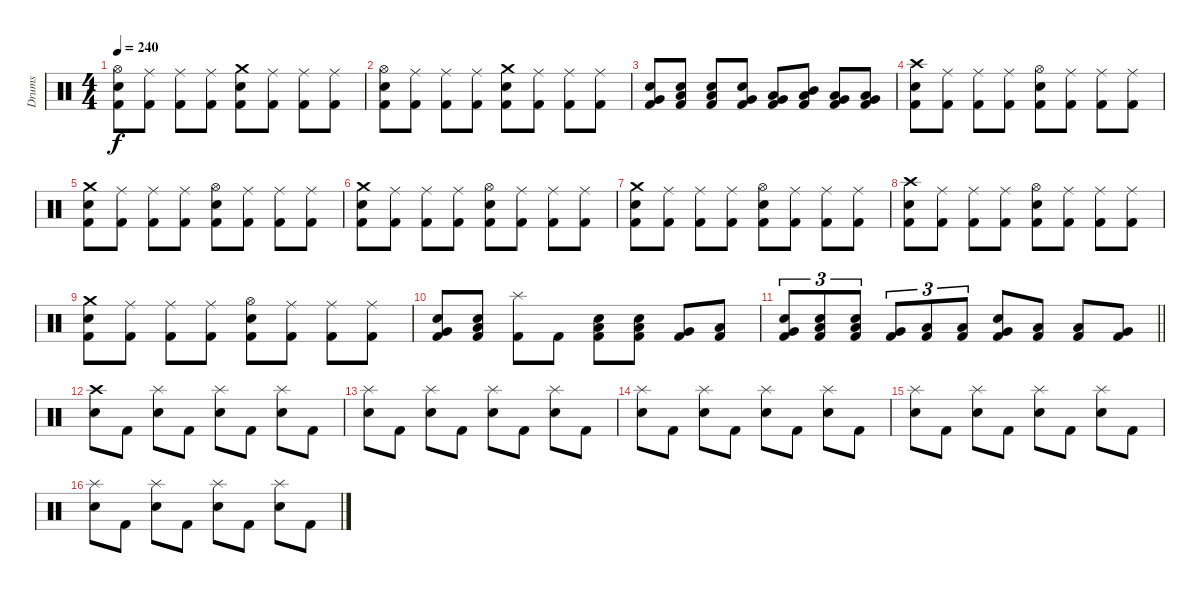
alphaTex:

\track ("Drums" "Drums") {instrument percussion}
\staff {score}
\articulation defaults
\ts (4 4)
\tempo 240
\clef neutral
\ks c
("Hi-Hat (open)" "Electric Snare (hit)" "Kick (hit) 2").8{dy f} ("Ride (middle)" "Kick (hit) 2").8 ("Ride (middle)" "Kick (hit) 2").8 ("Ride (middle)" "Kick (hit) 2").8 ("Crash medium (hit)" "Electric Snare (hit)" "Kick (hit) 2").8 ("Ride (middle)" "Kick (hit) 2").8 ("Ride (middle)" "Kick (hit) 2").8 ("Ride (middle)" "Kick (hit) 2").8 |
("Hi-Hat (open)" "Electric Snare (hit)" "Kick (hit) 2").8 ("Ride (middle)" "Kick (hit) 2").8 ("Ride (middle)" "Kick (hit) 2").8 ("Ride (middle)" "Kick (hit) 2").8 ("Crash medium (hit)" "Electric Snare (hit)" "Kick (hit) 2").8 ("Ride (middle)" "Kick (hit) 2").8 ("Ride (middle)" "Kick (hit) 2").8 ("Ride (middle)" "Kick (hit) 2").8 |
("Very Low Tom (hit)" "Electric Snare (hit)" "Kick (hit) 2").8 ("Low Tom (hit)" "Electric Snare (hit)" "Kick (hit) 2").8 ("Low Floor Tom (hit)" "Electric Snare (hit)" "Kick (hit) 2").8 ("Very Low Tom (hit)" "Electric Snare (hit)" "Kick (hit) 2").8 ("Low Floor Tom (hit)" "Very Low Tom (hit)" "Kick (hit) 2").8 ("Low Tom (hit)" "Mid Tom (hit)" "Kick (hit) 2").8 ("Very Low Tom (hit)" "Low Tom (hit)" "Kick (hit) 2").8 ("Low Floor Tom (hit)" "Very Low Tom (hit)" "Kick (hit) 2").8 |
("Crash high (hit)" "Electric Snare (hit)" "Kick (hit) 2").8 ("Ride (middle)" "Kick (hit) 2").8 ("Ride (middle)" "Kick (hit) 2").8 ("Ride (middle)" "Kick (hit) 2").8 ("Hi-Hat (open)" "Electric Snare (hit)" "Kick (hit) 2").8 ("Ride (middle)" "Kick (hit) 2").8 ("Ride (middle)" "Kick (hit) 2").8 ("Ride (middle)" "Kick (hit) 2").8 |
("Crash medium (hit)" "Electric Snare (hit)" "Kick (hit) 2").8 ("Ride (middle)" "Kick (hit) 2").8 ("Ride (middle)" "Kick (hit) 2").8 ("Ride (middle)" "Kick (hit) 2").8 ("Hi-Hat (open)" "Electric Snare (hit)" "Kick (hit) 2").8 ("Ride (middle)" "Kick (hit) 2").8 ("Ride (middle)" "Kick (hit) 2").8 ("Ride (middle)" "Kick (hit) 2").8 |
("Crash medium (hit)" "Electric Snare (hit)" "Kick (hit) 2").8 ("Ride (middle)" "Kick (hit) 2").8 ("Ride (middle)" "Kick (hit) 2").8 ("Ride (middle)" "Kick (hit) 2").8 ("Hi-Hat (open)" "Electric Snare (hit)" "Kick (hit) 2").8 ("Ride (middle)" "Kick (hit) 2").8 ("Ride (middle)" "Kick (hit) 2").8 ("Ride (middle)" "Kick (hit) 2").8 |
("Crash medium (hit)" "Electric Snare (hit)" "Kick (hit) 2").8 ("Ride (middle)" "Kick (hit) 2").8 ("Ride (middle)" "Kick (hit) 2").8 ("Ride (middle)" "Kick (hit) 2").8 ("Hi-Hat (open)" "Electric Snare (hit)" "Kick (hit) 2").8 ("Ride (middle)" "Kick (hit) 2").8 ("Ride (middle)" "Kick (hit) 2").8 ("Ride (middle)" "Kick (hit) 2").8 |
("Crash high (hit)" "Electric Snare (hit)" "Kick (hit) 2").8 ("Ride (middle)" "Kick (hit) 2").8 ("Ride (middle)" "Kick (hit) 2").8 ("Ride (middle)" "Kick (hit) 2").8 ("Hi-Hat (open)" "Electric Snare (hit)" "Kick (hit) 2").8 ("Ride (middle)" "Kick (hit) 2").8 ("Ride (middle)" "Kick (hit) 2").8 ("Ride (middle)" "Kick (hit) 2").8 |
("Crash medium (hit)" "Electric Snare (hit)" "Kick (hit) 2").8 ("Ride (middle)" "Kick (hit) 2").8 ("Ride (middle)" "Kick (hit) 2").8 ("Ride (middle)" "Kick (hit) 2").8 ("Hi-Hat (open)" "Electric Snare (hit)" "Kick (hit) 2").8 ("Ride (middle)" "Kick (hit) 2").8 ("Ride (middle)" "Kick (hit) 2").8 ("Ride (middle)" "Kick (hit) 2").8 |
("Very Low Tom (hit)" "Electric Snare (hit)" "Kick (hit) 2").8 ("Low Tom (hit)" "Electric Snare (hit)" "Kick (hit) 2").8 ("Splash (hit)" "Kick (hit) 2").8 "Kick (hit) 2".8 ("Low Floor Tom (hit)" "Electric Snare (hit)" "Kick (hit) 2").8 ("Low Tom (hit)" "Electric Snare (hit)" "Kick (hit) 2").8 ("Very Low Tom (hit)" "Kick (hit) 2").8 ("Low Floor Tom (hit)" "Kick (hit) 2").8 |
\barLineRight lightlight
("Very Low Tom (hit)" "Electric Snare (hit)" "Kick (hit) 2").8{tu (3 2)} ("Low Tom (hit)" "Electric Snare (hit)" "Kick (hit) 2").8{tu (3 2)} ("Low Floor Tom (hit)" "Electric Snare (hit)" "Kick (hit) 2").8{tu (3 2)} ("Very Low Tom (hit)" "Kick (hit) 2").8{tu (3 2)} ("Low Tom (hit)" "Kick (hit) 2").8{tu (3 2)} ("Low Floor Tom (hit)" "Kick (hit) 2").8{tu (3 2)} ("Very Low Tom (hit)" "Electric Snare (hit)" "Kick (hit) 2").8 ("Low Floor Tom (hit)" "Kick (hit) 2").8 ("Low Tom (hit)" "Kick (hit) 2").8 ("Very Low Tom (hit)" "Kick (hit) 2").8 |
("Crash high (hit)" "Electric Snare (hit)").8 "Kick (hit) 2".8 ("Splash (hit)" "Electric Snare (hit)").8 "Kick (hit) 2".8 ("Splash (hit)" "Electric Snare (hit)").8 "Kick (hit) 2".8 ("Splash (hit)" "Electric Snare (hit)").8 "Kick (hit) 2".8 |
("Splash (hit)" "Electric Snare (hit)").8 "Kick (hit) 2".8 ("Splash (hit)" "Electric Snare (hit)").8 "Kick (hit) 2".8 ("Splash (hit)" "Electric Snare (hit)").8 "Kick (hit) 2".8 ("Splash (hit)" "Electric Snare (hit)").8 "Kick (hit) 2".8 |
("Splash (hit)" "Electric Snare (hit)").8 "Kick (hit) 2".8 ("Splash (hit)" "Electric Snare (hit)").8 "Kick (hit) 2".8 ("Splash (hit)" "Electric Snare (hit)").8 "Kick (hit) 2".8 ("Splash (hit)" "Electric Snare (hit)").8 "Kick (hit) 2".8 |
("Splash (hit)" "Electric Snare (hit)").8 "Kick (hit) 2".8 ("Splash (hit)" "Electric Snare (hit)").8 "Kick (hit) 2".8 ("Splash (hit)" "Electric Snare (hit)").8 "Kick (hit) 2".8 ("Splash (hit)" "Electric Snare (hit)").8 "Kick (hit) 2".8 |
("Splash (hit)" "Electric Snare (hit)").8 "Kick (hit) 2".8 ("Splash (hit)" "Electric Snare (hit)").8 "Kick (hit) 2".8 ("Splash (hit)" "Electric Snare (hit)").8 "Kick (hit) 2".8 ("Splash (hit)" "Electric Snare (hit)").8 "Kick (hit) 2".8
